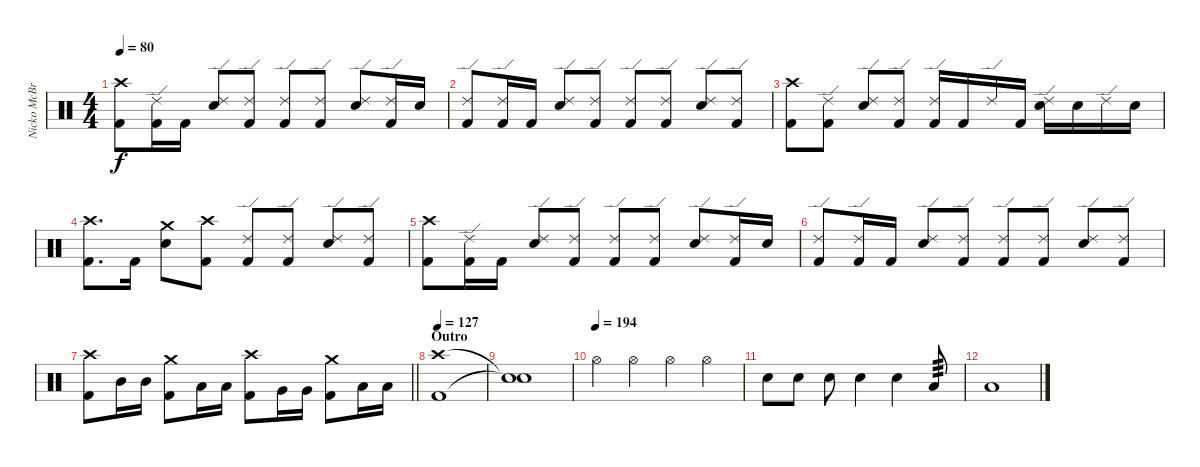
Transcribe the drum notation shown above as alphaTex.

\track ("Nicko McBrain" "Nicko McBr") {instrument percussion}
\staff {score}
\articulation defaults
\ts (4 4)
\tempo 80
\clef neutral
\ks c
("Crash high (hit)" "Kick (hit) 2").8{dy f} ("Ride (edge) 2" "Kick (hit) 2").16 "Kick (hit) 2".16 ("Ride (edge) 2" "Electric Snare (hit)").8 ("Ride (edge) 2" "Kick (hit) 2").8 ("Ride (edge) 2" "Kick (hit) 2").8 ("Ride (edge) 2" "Kick (hit) 2").8 ("Ride (edge) 2" "Electric Snare (hit)").8 ("Ride (edge) 2" "Kick (hit) 2").16 "Electric Snare (hit)".16 |
("Ride (edge) 2" "Kick (hit) 2").8 ("Ride (edge) 2" "Kick (hit) 2").16 "Kick (hit) 2".16 ("Ride (edge) 2" "Electric Snare (hit)").8 ("Ride (edge) 2" "Kick (hit) 2").8 ("Ride (edge) 2" "Kick (hit) 2").8 ("Ride (edge) 2" "Kick (hit) 2").8 ("Ride (edge) 2" "Electric Snare (hit)").8 ("Ride (edge) 2" "Kick (hit) 2").8 |
("Crash high (hit)" "Kick (hit) 2").8 ("Ride (edge) 2" "Kick (hit) 2").8 ("Ride (edge) 2" "Electric Snare (hit)").8 ("Ride (edge) 2" "Kick (hit) 2").8 ("Ride (edge) 2" "Kick (hit) 2").16 "Kick (hit) 2".16 "Ride (edge) 2".16 "Kick (hit) 2".16 ("Ride (edge) 2" "Electric Snare (hit)").16 "Electric Snare (hit)".16 "Ride (edge) 2".16 "Electric Snare (hit)".16 |
("Crash high (hit)" "Kick (hit) 2").8{d} "Kick (hit) 2".16 ("Crash medium (hit)" "Electric Snare (hit)").8 ("Crash high (hit)" "Kick (hit) 2").8 ("Ride (edge) 2" "Kick (hit) 2").8 ("Ride (edge) 2" "Kick (hit) 2").8 ("Ride (edge) 2" "Electric Snare (hit)").8 ("Ride (edge) 2" "Kick (hit) 2").8 |
("Crash high (hit)" "Kick (hit) 2").8 ("Ride (edge) 2" "Kick (hit) 2").16 "Kick (hit) 2".16 ("Ride (edge) 2" "Electric Snare (hit)").8 ("Ride (edge) 2" "Kick (hit) 2").8 ("Ride (edge) 2" "Kick (hit) 2").8 ("Ride (edge) 2" "Kick (hit) 2").8 ("Ride (edge) 2" "Electric Snare (hit)").8 ("Ride (edge) 2" "Kick (hit) 2").16 "Electric Snare (hit)".16 |
("Ride (edge) 2" "Kick (hit) 2").8 ("Ride (edge) 2" "Kick (hit) 2").16 "Kick (hit) 2".16 ("Ride (edge) 2" "Electric Snare (hit)").8 ("Ride (edge) 2" "Kick (hit) 2").8 ("Ride (edge) 2" "Kick (hit) 2").8 ("Ride (edge) 2" "Kick (hit) 2").8 ("Ride (edge) 2" "Electric Snare (hit)").8 ("Ride (edge) 2" "Kick (hit) 2").8 |
\barLineRight lightlight
("Crash high (hit)" "Kick (hit) 2").8 "Mid Tom (hit)".16 "Mid Tom (hit)".16 ("Crash medium (hit)" "Kick (hit) 2").8 "Low Tom (hit)".16 "Low Tom (hit)".16 ("Crash high (hit)" "Kick (hit) 2").8 "Very Low Tom (hit)".16 "Very Low Tom (hit)".16 ("Crash medium (hit)" "Kick (hit) 2").8 "Low Floor Tom (hit)".16 "Low Floor Tom (hit)".16 |
\section ("" "Outro")
\tempo 127
("Crash high (hit)" "Kick (hit) 2").1 |
("Snare (hit)"{t} "Snare (hit)"{t}).1 |
\tempo (194)
"Hi-Hat (open)".4 "Hi-Hat (open)".4 "Hi-Hat (open)".4 "Hi-Hat (open)".4 |
"Electric Snare (hit)".8 "Electric Snare (hit)".8 "Electric Snare (hit)".8 "Electric Snare (hit)".4 "Electric Snare (hit)".4 "Low Tom (hit)".8{tp 3} |
"Low Tom (hit)".1
